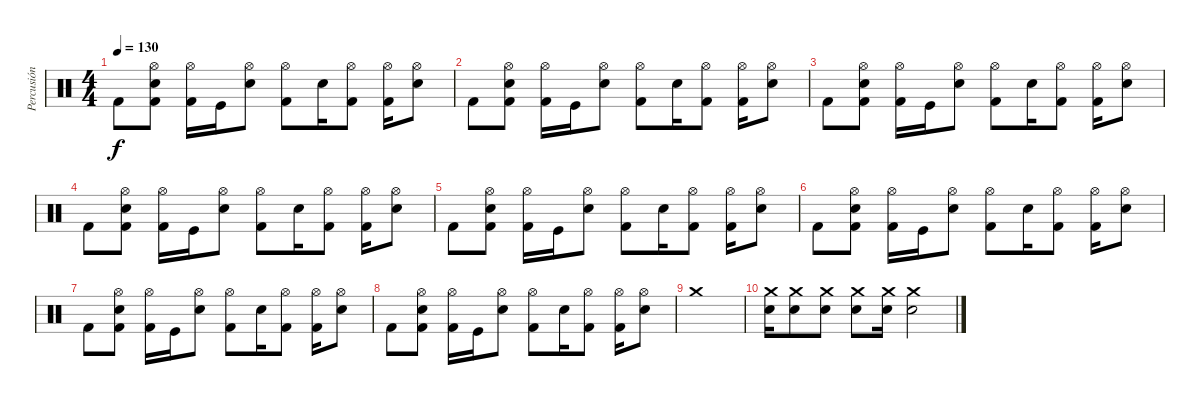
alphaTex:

\track ("Percusión" "Percusión") {instrument percussion}
\staff {score}
\articulation defaults
\ts (4 4)
\tempo 130
\clef neutral
\ks c "Kick (hit) 2".8{dy f}
("Kick (hit) 2" "Snare (hit) 2" "Hi-Hat (open)").8 ("Kick (hit) 2" "Hi-Hat (open)").16 "Kick (hit)".16 ("Snare (hit) 2" "Hi-Hat (open)").8 ("Kick (hit) 2" "Hi-Hat (open)").8 "Snare (hit) 2".16 ("Kick (hit) 2" "Hi-Hat (open)").8 ("Kick (hit) 2" "Hi-Hat (open)").16 ("Snare (hit) 2" "Hi-Hat (open)").8 |
"Kick (hit) 2".8 ("Kick (hit) 2" "Snare (hit) 2" "Hi-Hat (open)").8 ("Kick (hit) 2" "Hi-Hat (open)").16 "Kick (hit)".16 ("Snare (hit) 2" "Hi-Hat (open)").8 ("Kick (hit) 2" "Hi-Hat (open)").8 "Snare (hit) 2".16 ("Kick (hit) 2" "Hi-Hat (open)").8 ("Kick (hit) 2" "Hi-Hat (open)").16 ("Snare (hit) 2" "Hi-Hat (open)").8 |
"Kick (hit) 2".8 ("Kick (hit) 2" "Snare (hit) 2" "Hi-Hat (open)").8 ("Kick (hit) 2" "Hi-Hat (open)").16 "Kick (hit)".16 ("Snare (hit) 2" "Hi-Hat (open)").8 ("Kick (hit) 2" "Hi-Hat (open)").8 "Snare (hit) 2".16 ("Kick (hit) 2" "Hi-Hat (open)").8 ("Kick (hit) 2" "Hi-Hat (open)").16 ("Snare (hit) 2" "Hi-Hat (open)").8 |
"Kick (hit) 2".8 ("Kick (hit) 2" "Snare (hit) 2" "Hi-Hat (open)").8 ("Kick (hit) 2" "Hi-Hat (open)").16 "Kick (hit)".16 ("Snare (hit) 2" "Hi-Hat (open)").8 ("Kick (hit) 2" "Hi-Hat (open)").8 "Snare (hit) 2".16 ("Kick (hit) 2" "Hi-Hat (open)").8 ("Kick (hit) 2" "Hi-Hat (open)").16 ("Snare (hit) 2" "Hi-Hat (open)").8 |
"Kick (hit) 2".8 ("Kick (hit) 2" "Snare (hit) 2" "Hi-Hat (open)").8 ("Kick (hit) 2" "Hi-Hat (open)").16 "Kick (hit)".16 ("Snare (hit) 2" "Hi-Hat (open)").8 ("Kick (hit) 2" "Hi-Hat (open)").8 "Snare (hit) 2".16 ("Kick (hit) 2" "Hi-Hat (open)").8 ("Kick (hit) 2" "Hi-Hat (open)").16 ("Snare (hit) 2" "Hi-Hat (open)").8 |
"Kick (hit) 2".8 ("Kick (hit) 2" "Snare (hit) 2" "Hi-Hat (open)").8 ("Kick (hit) 2" "Hi-Hat (open)").16 "Kick (hit)".16 ("Snare (hit) 2" "Hi-Hat (open)").8 ("Kick (hit) 2" "Hi-Hat (open)").8 "Snare (hit) 2".16 ("Kick (hit) 2" "Hi-Hat (open)").8 ("Kick (hit) 2" "Hi-Hat (open)").16 ("Snare (hit) 2" "Hi-Hat (open)").8 |
"Kick (hit) 2".8 ("Kick (hit) 2" "Snare (hit) 2" "Hi-Hat (open)").8 ("Kick (hit) 2" "Hi-Hat (open)").16 "Kick (hit)".16 ("Snare (hit) 2" "Hi-Hat (open)").8 ("Kick (hit) 2" "Hi-Hat (open)").8 "Snare (hit) 2".16 ("Kick (hit) 2" "Hi-Hat (open)").8 ("Kick (hit) 2" "Hi-Hat (open)").16 ("Snare (hit) 2" "Hi-Hat (open)").8 |
"Kick (hit) 2".8 ("Kick (hit) 2" "Snare (hit) 2" "Hi-Hat (open)").8 ("Kick (hit) 2" "Hi-Hat (open)").16 "Kick (hit)".16 ("Snare (hit) 2" "Hi-Hat (open)").8 ("Kick (hit) 2" "Hi-Hat (open)").8 "Snare (hit) 2".16 ("Kick (hit) 2" "Hi-Hat (open)").8 ("Kick (hit) 2" "Hi-Hat (open)").16 ("Snare (hit) 2" "Hi-Hat (open)").8 |
"Crash medium (hit)".1 |
("Snare (hit) 2" "Crash medium (hit)").16 ("Snare (hit) 2" "Crash medium (hit)").8 ("Snare (hit) 2" "Crash medium (hit)").8 ("Snare (hit) 2" "Crash medium (hit)").8 ("Snare (hit) 2" "Crash medium (hit)").16 ("Snare (hit) 2" "Crash medium (hit)").2
